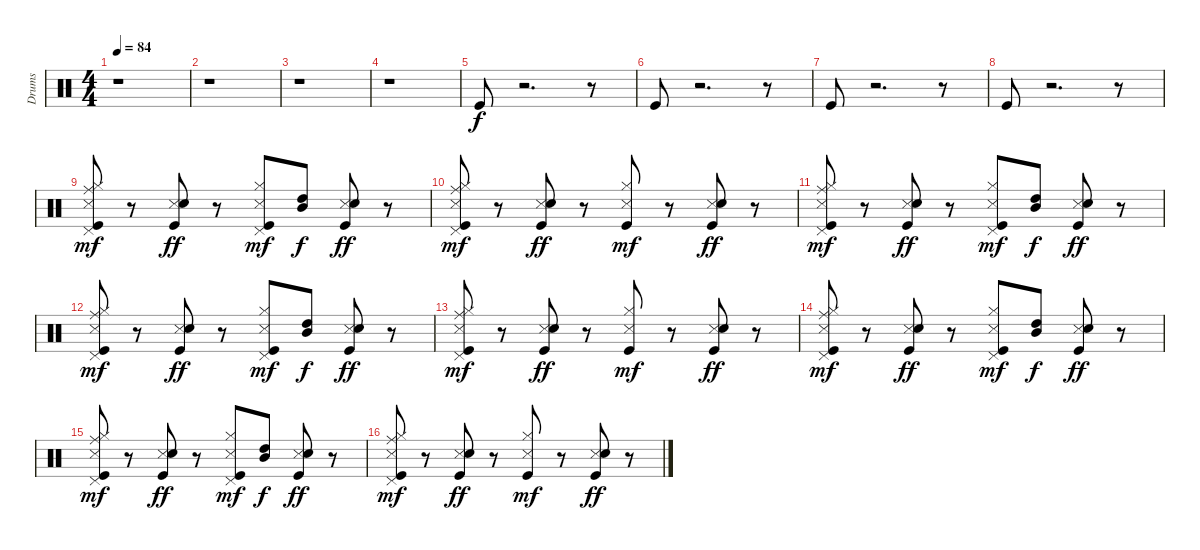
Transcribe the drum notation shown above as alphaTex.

\track ("Drums   " "Drums   ") {instrument percussion}
\staff {score}
\articulation defaults
\ts (4 4)
\tempo 84
\clef neutral
\ks c
r.1{dy f} |
r.1 |
r.1 |
r.1 |
"Kick (hit)".8 r.2{d} r.8 |
"Kick (hit)".8 r.2{d} r.8 |
"Kick (hit)".8 r.2{d} r.8 |
"Kick (hit)".8 r.2{d} r.8 |
("Ride (middle)" "Pedal Hi-Hat (hit)" "Kick (hit)" "Hi-Hat (closed)" "Snare (side stick) 3").8{dy mf} r.8 ("Kick (hit)" "Snare (side stick) 3" "Hand Clap (hit)").8{dy ff} r.8 ("Pedal Hi-Hat (hit)" "Kick (hit)" "Hi-Hat (closed)" "Snare (side stick) 3").8{dy mf} ("Mid Tom (hit)" "High Tom (hit)").8{dy f} ("Kick (hit)" "Snare (side stick) 3" "Hand Clap (hit)").8{dy ff} r.8 |
("Ride (middle)" "Pedal Hi-Hat (hit)" "Kick (hit)" "Hi-Hat (closed)" "Snare (side stick) 3").8{dy mf} r.8 ("Kick (hit)" "Snare (side stick) 3" "Hand Clap (hit)").8{dy ff} r.8 ("Kick (hit)" "Hi-Hat (closed)" "Snare (side stick) 3").8{dy mf} r.8 ("Kick (hit)" "Snare (side stick) 3" "Hand Clap (hit)").8{dy ff} r.8 |
("Ride (middle)" "Pedal Hi-Hat (hit)" "Kick (hit)" "Hi-Hat (closed)" "Snare (side stick) 3").8{dy mf} r.8 ("Kick (hit)" "Snare (side stick) 3" "Hand Clap (hit)").8{dy ff} r.8 ("Pedal Hi-Hat (hit)" "Kick (hit)" "Hi-Hat (closed)" "Snare (side stick) 3").8{dy mf} ("Mid Tom (hit)" "High Tom (hit)").8{dy f} ("Kick (hit)" "Snare (side stick) 3" "Hand Clap (hit)").8{dy ff} r.8 |
("Ride (middle)" "Pedal Hi-Hat (hit)" "Kick (hit)" "Hi-Hat (closed)" "Snare (side stick) 3").8{dy mf} r.8 ("Kick (hit)" "Snare (side stick) 3" "Hand Clap (hit)").8{dy ff} r.8 ("Pedal Hi-Hat (hit)" "Kick (hit)" "Hi-Hat (closed)" "Snare (side stick) 3").8{dy mf} ("Mid Tom (hit)" "High Tom (hit)").8{dy f} ("Kick (hit)" "Snare (side stick) 3" "Hand Clap (hit)").8{dy ff} r.8 |
("Ride (middle)" "Pedal Hi-Hat (hit)" "Kick (hit)" "Hi-Hat (closed)" "Snare (side stick) 3").8{dy mf} r.8 ("Kick (hit)" "Snare (side stick) 3" "Hand Clap (hit)").8{dy ff} r.8 ("Kick (hit)" "Hi-Hat (closed)" "Snare (side stick) 3").8{dy mf} r.8 ("Kick (hit)" "Snare (side stick) 3" "Hand Clap (hit)").8{dy ff} r.8 |
("Ride (middle)" "Pedal Hi-Hat (hit)" "Kick (hit)" "Hi-Hat (closed)" "Snare (side stick) 3").8{dy mf} r.8 ("Kick (hit)" "Snare (side stick) 3" "Hand Clap (hit)").8{dy ff} r.8 ("Pedal Hi-Hat (hit)" "Kick (hit)" "Hi-Hat (closed)" "Snare (side stick) 3").8{dy mf} ("Mid Tom (hit)" "High Tom (hit)").8{dy f} ("Kick (hit)" "Snare (side stick) 3" "Hand Clap (hit)").8{dy ff} r.8 |
("Ride (middle)" "Pedal Hi-Hat (hit)" "Kick (hit)" "Hi-Hat (closed)" "Snare (side stick) 3").8{dy mf} r.8 ("Kick (hit)" "Snare (side stick) 3" "Hand Clap (hit)").8{dy ff} r.8 ("Pedal Hi-Hat (hit)" "Kick (hit)" "Hi-Hat (closed)" "Snare (side stick) 3").8{dy mf} ("Mid Tom (hit)" "High Tom (hit)").8{dy f} ("Kick (hit)" "Snare (side stick) 3" "Hand Clap (hit)").8{dy ff} r.8 |
("Ride (middle)" "Pedal Hi-Hat (hit)" "Kick (hit)" "Hi-Hat (closed)" "Snare (side stick) 3").8{dy mf} r.8 ("Kick (hit)" "Snare (side stick) 3" "Hand Clap (hit)").8{dy ff} r.8 ("Kick (hit)" "Hi-Hat (closed)" "Snare (side stick) 3").8{dy mf} r.8 ("Kick (hit)" "Snare (side stick) 3" "Hand Clap (hit)").8{dy ff} r.8
